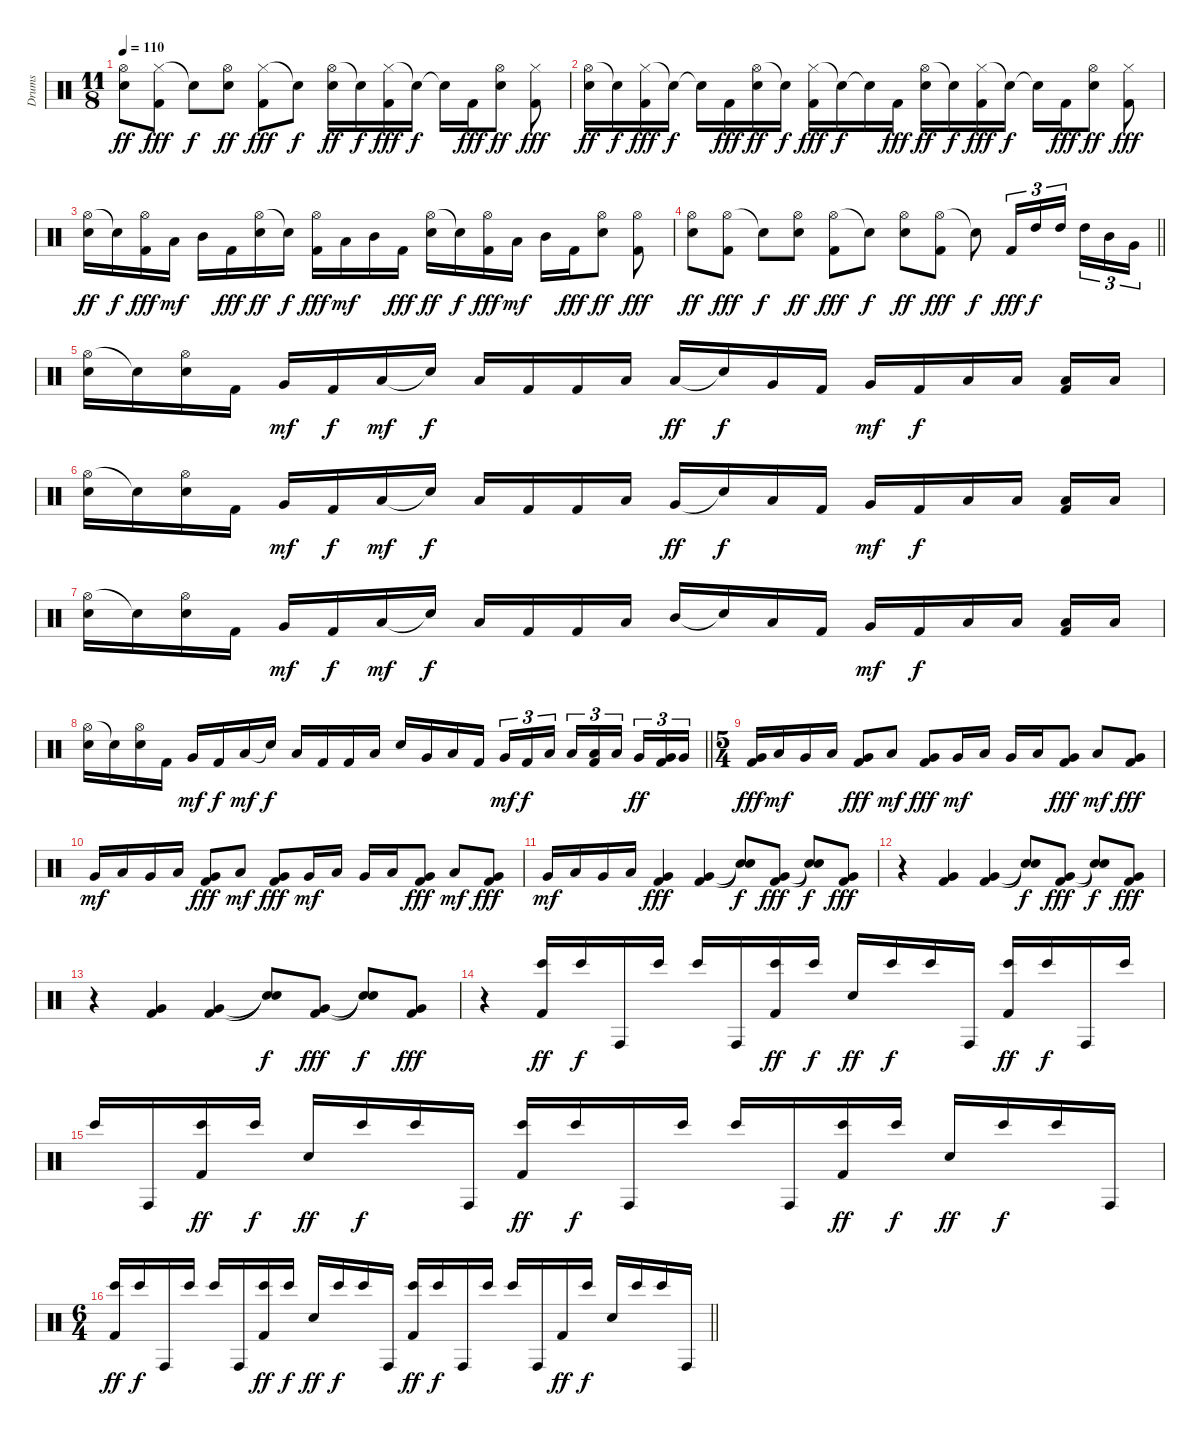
\track ("Drums" "Drums") {instrument percussion}
\staff {score}
\articulation defaults
\ts (11 8)
\section ("" "")
\tempo 110
\clef neutral
\ks c
("Hi-Hat (open)" "Snare (hit) 2").8{dy ff} ("Hi-Hat (closed)" "Kick (hit) 2").8{dy fff} "Snare (hit)"{t}.8{dy f} ("Hi-Hat (open)" "Snare (hit) 2").8{dy ff} ("Hi-Hat (closed)" "Kick (hit) 2").8{dy fff} "Snare (hit)"{t}.8{dy f} ("Hi-Hat (open)" "Snare (hit) 2").16{dy ff} "Snare (hit)"{t}.16{dy f} ("Hi-Hat (closed)" "Kick (hit) 2").16{dy fff} "Snare (hit)"{t}.16{dy f} "Snare (hit)"{t}.16 "Kick (hit) 2".16{dy fff} ("Hi-Hat (open)" "Snare (hit) 2").8{dy ff} ("Hi-Hat (closed)" "Kick (hit) 2").8{dy fff} |
("Hi-Hat (open)" "Snare (hit) 2").16{dy ff} "Snare (hit)"{t}.16{dy f} ("Hi-Hat (closed)" "Kick (hit) 2").16{dy fff} "Snare (hit)"{t}.16{dy f} "Snare (hit)"{t}.16 "Kick (hit) 2".16{dy fff} ("Hi-Hat (open)" "Snare (hit) 2").16{dy ff} "Snare (hit)"{t}.16{dy f} ("Hi-Hat (closed)" "Kick (hit) 2").16{dy fff} "Snare (hit)"{t}.16{dy f} "Snare (hit)"{t}.16 "Kick (hit) 2".16{dy fff} ("Hi-Hat (open)" "Snare (hit) 2").16{dy ff} "Snare (hit)"{t}.16{dy f} ("Hi-Hat (closed)" "Kick (hit) 2").16{dy fff} "Snare (hit)"{t}.16{dy f} "Snare (hit)"{t}.16 "Kick (hit) 2".16{dy fff} ("Hi-Hat (open)" "Snare (hit) 2").8{dy ff} ("Hi-Hat (closed)" "Kick (hit) 2").8{dy fff} |
("Hi-Hat (open)" "Snare (hit) 2").16{dy ff} "Snare (hit)"{t}.16{dy f} ("Hi-Hat (open)" "Kick (hit) 2").16{dy fff} "Low Tom (hit)".16{dy mf} "Mid Tom (hit)".16 "Kick (hit) 2".16{dy fff} ("Hi-Hat (open)" "Snare (hit) 2").16{dy ff} "Snare (hit)"{t}.16{dy f} ("Hi-Hat (open)" "Kick (hit) 2").16{dy fff} "Low Tom (hit)".16{dy mf} "Mid Tom (hit)".16 "Kick (hit) 2".16{dy fff} ("Hi-Hat (open)" "Snare (hit) 2").16{dy ff} "Snare (hit)"{t}.16{dy f} ("Hi-Hat (open)" "Kick (hit) 2").16{dy fff} "Low Tom (hit)".16{dy mf} "Mid Tom (hit)".16 "Kick (hit) 2".16{dy fff} ("Hi-Hat (open)" "Snare (hit) 2").8{dy ff} ("Hi-Hat (open)" "Kick (hit) 2").8{dy fff} |
\barLineRight lightlight
("Hi-Hat (open)" "Snare (hit) 2").8{dy ff} ("Hi-Hat (open)" "Kick (hit) 2").8{dy fff} "Snare (hit)"{t}.8{dy f} ("Hi-Hat (open)" "Snare (hit) 2").8{dy ff} ("Hi-Hat (open)" "Kick (hit) 2").8{dy fff} "Snare (hit)"{t}.8{dy f} ("Hi-Hat (open)" "Snare (hit) 2").8{dy ff} ("Hi-Hat (open)" "Kick (hit) 2").8{dy fff} "Snare (hit)"{t}.8{dy f} "Kick (hit) 2".16{tu (3 2) dy fff} "High Tom (hit)".16{tu (3 2) dy f} "High Tom (hit)".16{tu (3 2)} "High Tom (hit)".16{tu (3 2)} "Mid Tom (hit)".16{tu (3 2)} "Very Low Tom (hit)".16{tu (3 2)} |
\section ("" "")
("Hi-Hat (open)" "Snare (hit) 2").16 "Snare (hit)"{t}.16 ("Hi-Hat (open)" "Snare (hit) 2").16 "Kick (hit) 2".16 "Very Low Tom (hit)".16{dy mf} "Kick (hit) 2".16{dy f} "Low Floor Tom (hit)".16{dy mf} "Snare (hit)"{t}.16{dy f} "Low Tom (hit)".16 "Kick (hit) 2".16 "Kick (hit) 2".16 "Low Floor Tom (hit)".16 "Low Tom (hit)".16{dy ff} "Snare (hit)"{t}.16{dy f} "Very Low Tom (hit)".16 "Kick (hit) 2".16 "Very Low Tom (hit)".16{dy mf} "Kick (hit) 2".16{dy f} "Low Floor Tom (hit)".16 "Low Floor Tom (hit)".16 ("Low Tom (hit)" "Kick (hit) 2").16 "Low Tom (hit)".16 |
("Hi-Hat (open)" "Snare (hit) 2").16 "Snare (hit)"{t}.16 ("Hi-Hat (open)" "Snare (hit) 2").16 "Kick (hit) 2".16 "Very Low Tom (hit)".16{dy mf} "Kick (hit) 2".16{dy f} "Low Floor Tom (hit)".16{dy mf} "Snare (hit)"{t}.16{dy f} "Low Tom (hit)".16 "Kick (hit) 2".16 "Kick (hit) 2".16 "Low Floor Tom (hit)".16 "Very Low Tom (hit)".16{dy ff} "Snare (hit)"{t}.16{dy f} "Low Floor Tom (hit)".16 "Kick (hit) 2".16 "Very Low Tom (hit)".16{dy mf} "Kick (hit) 2".16{dy f} "Low Floor Tom (hit)".16 "Low Floor Tom (hit)".16 ("Low Tom (hit)" "Kick (hit) 2").16 "Low Tom (hit)".16 |
("Hi-Hat (open)" "Snare (hit) 2").16 "Snare (hit)"{t}.16 ("Hi-Hat (open)" "Snare (hit) 2").16 "Kick (hit) 2".16 "Very Low Tom (hit)".16{dy mf} "Kick (hit) 2".16{dy f} "Low Floor Tom (hit)".16{dy mf} "Snare (hit)"{t}.16{dy f} "Low Tom (hit)".16 "Kick (hit) 2".16 "Kick (hit) 2".16 "Low Floor Tom (hit)".16 "Mid Tom (hit)".16 "Snare (hit)"{t}.16 "Low Tom (hit)".16 "Kick (hit) 2".16 "Very Low Tom (hit)".16{dy mf} "Kick (hit) 2".16{dy f} "Low Floor Tom (hit)".16 "Low Floor Tom (hit)".16 ("Low Tom (hit)" "Kick (hit) 2").16 "Low Tom (hit)".16 |
\barLineRight lightlight
("Hi-Hat (open)" "Snare (hit) 2").16 "Snare (hit)"{t}.16 ("Hi-Hat (open)" "Snare (hit) 2").16 "Kick (hit) 2".16 "Very Low Tom (hit)".16{dy mf} "Kick (hit) 2".16{dy f} "Low Floor Tom (hit)".16{dy mf} "Snare (hit)"{t}.16{dy f} "Low Tom (hit)".16 "Kick (hit) 2".16 "Kick (hit) 2".16 "Low Floor Tom (hit)".16 "Snare (hit) 2".16 "Very Low Tom (hit)".16 "Low Floor Tom (hit)".16 "Kick (hit) 2".16 "Very Low Tom (hit)".16{tu (3 2) dy mf} "Kick (hit) 2".16{tu (3 2) dy f} "Low Floor Tom (hit)".16{tu (3 2)} "Low Floor Tom (hit)".16{tu (3 2)} ("Low Tom (hit)" "Kick (hit) 2").16{tu (3 2)} "Low Tom (hit)".16{tu (3 2)} "Very Low Tom (hit)".16{tu (3 2) dy ff} ("Very Low Tom (hit)" "Kick (hit) 2").16{tu (3 2)} "Very Low Tom (hit)".16{tu (3 2)} |
\ts (5 4)
\section ("" "")
("Very Low Tom (hit)" "Kick (hit) 2").16{dy fff} "Low Tom (hit)".16{dy mf} "Very Low Tom (hit)".16 "Low Floor Tom (hit)".16 ("Very Low Tom (hit)" "Kick (hit) 2").8{dy fff} "Low Floor Tom (hit)".8{dy mf} ("Very Low Tom (hit)" "Kick (hit) 2").8{dy fff} "Very Low Tom (hit)".16{dy mf} "Low Tom (hit)".16 "Very Low Tom (hit)".16 "Low Floor Tom (hit)".16 ("Very Low Tom (hit)" "Kick (hit) 2").8{dy fff} "Low Floor Tom (hit)".8{dy mf} ("Very Low Tom (hit)" "Kick (hit) 2").8{dy fff} |
"Very Low Tom (hit)".16{dy mf} "Low Tom (hit)".16 "Very Low Tom (hit)".16 "Low Floor Tom (hit)".16 ("Very Low Tom (hit)" "Kick (hit) 2").8{dy fff} "Low Floor Tom (hit)".8{dy mf} ("Very Low Tom (hit)" "Kick (hit) 2").8{dy fff} "Very Low Tom (hit)".16{dy mf} "Low Tom (hit)".16 "Very Low Tom (hit)".16 "Low Floor Tom (hit)".16 ("Very Low Tom (hit)" "Kick (hit) 2").8{dy fff} "Low Floor Tom (hit)".8{dy mf} ("Very Low Tom (hit)" "Kick (hit) 2").8{dy fff} |
"Very Low Tom (hit)".16{dy mf} "Low Tom (hit)".16 "Very Low Tom (hit)".16 "Low Floor Tom (hit)".16 ("Very Low Tom (hit)" "Kick (hit) 2").4{dy fff} ("Very Low Tom (hit)" "Kick (hit) 2").4 ("Snare (hit)"{t} "Snare (hit)"{t}).8{dy f} ("Very Low Tom (hit)" "Kick (hit) 2").8{dy fff} ("Snare (hit)"{t} "Snare (hit)"{t}).8{dy f} ("Very Low Tom (hit)" "Kick (hit) 2").8{dy fff} |
r.4 ("Very Low Tom (hit)" "Kick (hit) 2").4 ("Very Low Tom (hit)" "Kick (hit) 2").4 ("Snare (hit)"{t} "Snare (hit)"{t}).8{dy f} ("Very Low Tom (hit)" "Kick (hit) 2").8{dy fff} ("Snare (hit)"{t} "Snare (hit)"{t}).8{dy f} ("Very Low Tom (hit)" "Kick (hit) 2").8{dy fff} |
r.4 ("Very Low Tom (hit)" "Kick (hit) 2").4 ("Very Low Tom (hit)" "Kick (hit) 2").4 ("Snare (hit)"{t} "Snare (hit)"{t}).8{dy f} ("Very Low Tom (hit)" "Kick (hit) 2").8{dy fff} ("Snare (hit)"{t} "Snare (hit)"{t}).8{dy f} ("Very Low Tom (hit)" "Kick (hit) 2").8{dy fff} |
r.4 ("Bongo High (hit)" "Kick (hit) 2").16{dy ff} "Bongo High (hit)".16{dy f} "Conga high (hit)".16 "Bongo High (hit)".16 "Bongo High (hit)".16 "Conga high (hit)".16 ("Bongo High (hit)" "Kick (hit) 2").16{dy ff} "Bongo High (hit)".16{dy f} "Snare (hit) 2".16{dy ff} "Bongo High (hit)".16{dy f} "Bongo High (hit)".16 "Conga high (hit)".16 ("Bongo High (hit)" "Kick (hit) 2").16{dy ff} "Bongo High (hit)".16{dy f} "Conga high (hit)".16 "Bongo High (hit)".16 |
"Bongo High (hit)".16 "Conga high (hit)".16 ("Bongo High (hit)" "Kick (hit) 2").16{dy ff} "Bongo High (hit)".16{dy f} "Snare (hit) 2".16{dy ff} "Bongo High (hit)".16{dy f} "Bongo High (hit)".16 "Conga high (hit)".16 ("Bongo High (hit)" "Kick (hit) 2").16{dy ff} "Bongo High (hit)".16{dy f} "Conga high (hit)".16 "Bongo High (hit)".16 "Bongo High (hit)".16 "Conga high (hit)".16 ("Bongo High (hit)" "Kick (hit) 2").16{dy ff} "Bongo High (hit)".16{dy f} "Snare (hit) 2".16{dy ff} "Bongo High (hit)".16{dy f} "Bongo High (hit)".16 "Conga high (hit)".16 |
\ts (6 4)
\barLineRight lightlight
("Bongo High (hit)" "Kick (hit) 2").16{dy ff} "Bongo High (hit)".16{dy f} "Conga high (hit)".16 "Bongo High (hit)".16 "Bongo High (hit)".16 "Conga high (hit)".16 ("Bongo High (hit)" "Kick (hit) 2").16{dy ff} "Bongo High (hit)".16{dy f} "Snare (hit) 2".16{dy ff} "Bongo High (hit)".16{dy f} "Bongo High (hit)".16 "Conga high (hit)".16 ("Bongo High (hit)" "Kick (hit) 2").16{dy ff} "Bongo High (hit)".16{dy f} "Conga high (hit)".16 "Bongo High (hit)".16 "Bongo High (hit)".16 "Conga high (hit)".16 "Kick (hit) 2".16{dy ff} "Bongo High (hit)".16{dy f} "Snare (hit) 2".16 "Bongo High (hit)".16 "Bongo High (hit)".16 "Conga high (hit)".16
